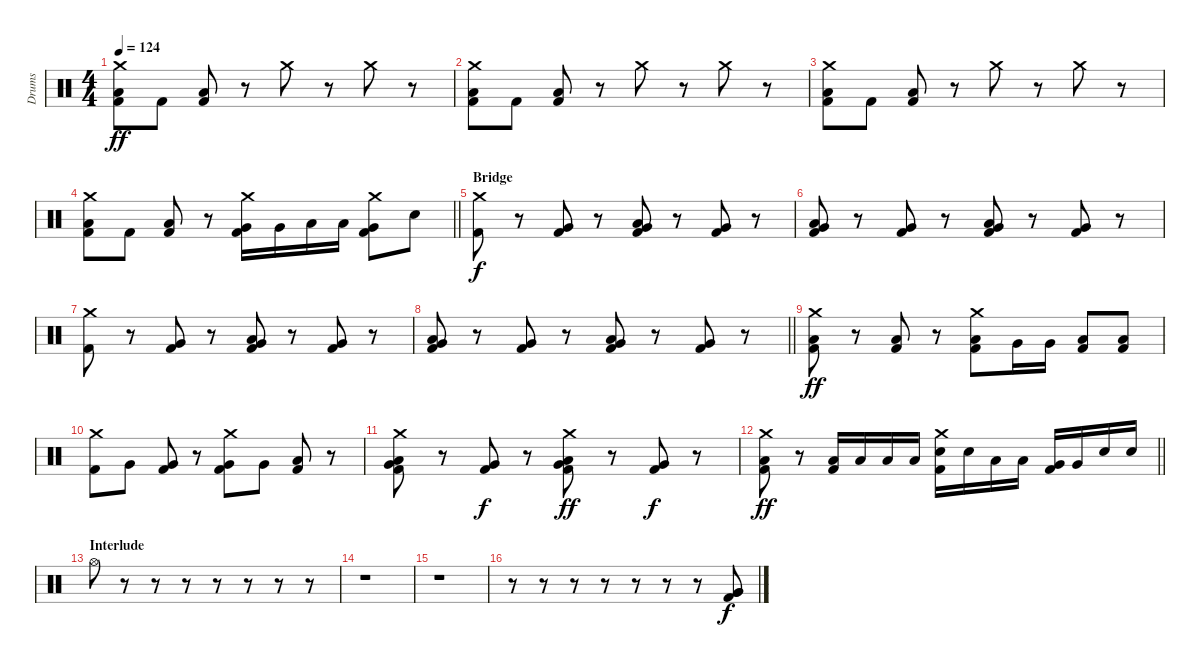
\track ("Drums" "Drums") {instrument percussion}
\staff {score}
\articulation defaults
\ts (4 4)
\tempo 124
\clef neutral
\ks c
("Crash medium (hit)" "Low Floor Tom (hit)" "Kick (hit) 2").8{dy ff} "Kick (hit) 2".8 ("Low Floor Tom (hit)" "Kick (hit) 2").8 r.8 "Crash medium (hit)".8 r.8 "Crash medium (hit)".8 r.8 |
("Crash medium (hit)" "Low Floor Tom (hit)" "Kick (hit) 2").8 "Kick (hit) 2".8 ("Low Floor Tom (hit)" "Kick (hit) 2").8 r.8 "Crash medium (hit)".8 r.8 "Crash medium (hit)".8 r.8 |
("Crash medium (hit)" "Low Floor Tom (hit)" "Kick (hit) 2").8 "Kick (hit) 2".8 ("Low Floor Tom (hit)" "Kick (hit) 2").8 r.8 "Crash medium (hit)".8 r.8 "Crash medium (hit)".8 r.8 |
\barLineRight lightlight
("Crash medium (hit)" "Low Floor Tom (hit)" "Kick (hit) 2").8 "Kick (hit) 2".8 ("Low Floor Tom (hit)" "Kick (hit) 2").8 r.8 ("Crash medium (hit)" "Very Low Tom (hit)" "Kick (hit) 2").16 "Very Low Tom (hit)".16 "Low Floor Tom (hit)".16 "Low Floor Tom (hit)".16 ("Crash medium (hit)" "Very Low Tom (hit)" "Kick (hit) 2").8 "Electric Snare (hit)".8 |
\section ("" "Bridge")
("Crash medium (hit)" "Kick (hit) 2").8{dy f} r.8 ("Very Low Tom (hit)" "Kick (hit) 2").8 r.8 ("Very Low Tom (hit)" "Low Floor Tom (hit)" "Kick (hit) 2").8 r.8 ("Very Low Tom (hit)" "Kick (hit) 2").8 r.8 |
("Very Low Tom (hit)" "Low Floor Tom (hit)" "Kick (hit) 2").8 r.8 ("Very Low Tom (hit)" "Kick (hit) 2").8 r.8 ("Very Low Tom (hit)" "Low Floor Tom (hit)" "Kick (hit) 2").8 r.8 ("Very Low Tom (hit)" "Kick (hit) 2").8 r.8 |
("Crash medium (hit)" "Kick (hit) 2").8 r.8 ("Very Low Tom (hit)" "Kick (hit) 2").8 r.8 ("Very Low Tom (hit)" "Low Floor Tom (hit)" "Kick (hit) 2").8 r.8 ("Very Low Tom (hit)" "Kick (hit) 2").8 r.8 |
\barLineRight lightlight
("Very Low Tom (hit)" "Low Floor Tom (hit)" "Kick (hit) 2").8 r.8 ("Very Low Tom (hit)" "Kick (hit) 2").8 r.8 ("Very Low Tom (hit)" "Low Floor Tom (hit)" "Kick (hit) 2").8 r.8 ("Very Low Tom (hit)" "Kick (hit) 2").8 r.8 |
("Crash medium (hit)" "Low Floor Tom (hit)" "Kick (hit) 2").8{dy ff} r.8 ("Low Floor Tom (hit)" "Kick (hit) 2").8 r.8 ("Crash medium (hit)" "Low Floor Tom (hit)" "Kick (hit) 2").8 "Very Low Tom (hit)".16 "Very Low Tom (hit)".16 ("Low Floor Tom (hit)" "Kick (hit) 2").8 ("Low Floor Tom (hit)" "Kick (hit) 2").8 |
("Crash medium (hit)" "Kick (hit) 2").8 "Very Low Tom (hit)".8 ("Very Low Tom (hit)" "Kick (hit) 2").8 r.8 ("Crash medium (hit)" "Very Low Tom (hit)" "Kick (hit) 2").8 "Very Low Tom (hit)".8 ("Low Floor Tom (hit)" "Kick (hit) 2").8 r.8 |
("Crash medium (hit)" "Very Low Tom (hit)" "Low Floor Tom (hit)" "Kick (hit) 2").8 r.8 ("Very Low Tom (hit)" "Kick (hit) 2").8{dy f} r.8 ("Crash medium (hit)" "Very Low Tom (hit)" "Low Floor Tom (hit)" "Kick (hit) 2").8{dy ff} r.8 ("Very Low Tom (hit)" "Kick (hit) 2").8{dy f} r.8 |
\barLineRight lightlight
("Crash medium (hit)" "Low Floor Tom (hit)" "Kick (hit) 2").8{dy ff} r.8 ("Low Floor Tom (hit)" "Kick (hit) 2").16 "Low Floor Tom (hit)".16 "Low Floor Tom (hit)".16 "Low Floor Tom (hit)".16 ("Crash medium (hit)" "Electric Snare (hit)" "Kick (hit) 2").16 "Electric Snare (hit)".16 "Low Floor Tom (hit)".16 "Low Floor Tom (hit)".16 ("Very Low Tom (hit)" "Kick (hit) 2").16 "Very Low Tom (hit)".16 "Electric Snare (hit)".16 "Electric Snare (hit)".16 |
\section ("" "Interlude")
"Hi-Hat (open)".8 r.8 r.8 r.8 r.8 r.8 r.8 r.8 |
r.1 |
r.1 |
r.8 r.8 r.8 r.8 r.8 r.8 r.8 ("Very Low Tom (hit)" "Very Low Tom (hit)" "Kick (hit) 2").8{dy f}
